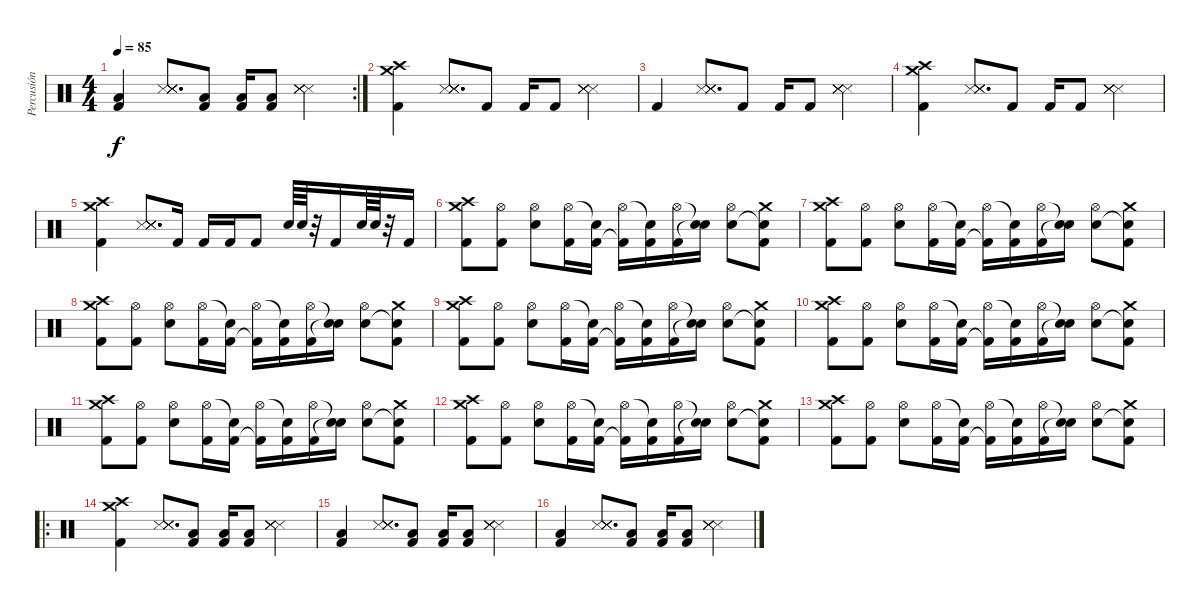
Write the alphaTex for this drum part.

\track ("Percusión" "Percusión") {instrument percussion}
\staff {score}
\articulation defaults
\rc 2
\ts (4 4)
\tempo 85
\clef neutral
\ks c
("Low Tom (hit)" "Kick (hit) 2").4{dy f} ("Snare (side stick) 3" "Snare (side stick) 3" "Snare (side stick) 3" "Snare (side stick) 3" "Snare (side stick) 3").8{d} ("Low Tom (hit)" "Kick (hit) 2").8 ("Low Tom (hit)" "Kick (hit) 2").16 ("Low Tom (hit)" "Kick (hit) 2").8 ("Snare (side stick) 3" "Snare (side stick) 3" "Snare (side stick) 3" "Snare (side stick) 3" "Snare (side stick) 3").4 |
("Crash medium (hit)" "Crash high (hit)" "Kick (hit) 2").4 ("Snare (side stick) 3" "Snare (side stick) 3" "Snare (side stick) 3" "Snare (side stick) 3" "Snare (side stick) 3").8{d} "Kick (hit) 2".8 "Kick (hit) 2".16 "Kick (hit) 2".8 ("Snare (side stick) 3" "Snare (side stick) 3" "Snare (side stick) 3" "Snare (side stick) 3" "Snare (side stick) 3").4 |
"Kick (hit) 2".4 ("Snare (side stick) 3" "Snare (side stick) 3" "Snare (side stick) 3" "Snare (side stick) 3" "Snare (side stick) 3").8{d} "Kick (hit) 2".8 "Kick (hit) 2".16 "Kick (hit) 2".8 ("Snare (side stick) 3" "Snare (side stick) 3" "Snare (side stick) 3" "Snare (side stick) 3" "Snare (side stick) 3").4 |
("Crash medium (hit)" "Crash high (hit)" "Kick (hit) 2").4 ("Snare (side stick) 3" "Snare (side stick) 3" "Snare (side stick) 3" "Snare (side stick) 3" "Snare (side stick) 3").8{d} "Kick (hit) 2".8 "Kick (hit) 2".16 "Kick (hit) 2".8 ("Snare (side stick) 3" "Snare (side stick) 3" "Snare (side stick) 3" "Snare (side stick) 3" "Snare (side stick) 3").4 |
("Crash medium (hit)" "Crash high (hit)" "Kick (hit) 2").4 ("Snare (side stick) 3" "Snare (side stick) 3" "Snare (side stick) 3" "Snare (side stick) 3" "Snare (side stick) 3").8{d} "Kick (hit) 2".16 "Kick (hit) 2".16 "Kick (hit) 2".16 "Kick (hit) 2".8 "Electric Snare (hit)".64 "Electric Snare (hit)".64 r.32 "Kick (hit) 2".16 "Electric Snare (hit)".64 "Electric Snare (hit)".64 r.32 "Kick (hit) 2".16 |
("Crash high (hit)" "Crash medium (hit)" "Kick (hit) 2").8 ("Hi-Hat (open)" "Kick (hit) 2").8 ("Hi-Hat (open)" "Electric Snare (hit)").8 ("Hi-Hat (open)" "Kick (hit) 2").16 ("Snare (hit)"{t} "Kick (hit) 2").16 ("Hi-Hat (open)" "Kick (hit) 2"{t}).16 ("Snare (hit)"{t} "Kick (hit) 2").16 ("Hi-Hat (open)" "Kick (hit) 2").16 ("Snare (hit)"{t} "Snare (hit)"{t}).16 ("Hi-Hat (open)" "Electric Snare (hit)").8 ("Crash medium (hit)" "Snare (hit)"{t} "Kick (hit) 2").8 |
("Crash high (hit)" "Crash medium (hit)" "Kick (hit) 2").8 ("Hi-Hat (open)" "Kick (hit) 2").8 ("Hi-Hat (open)" "Electric Snare (hit)").8 ("Hi-Hat (open)" "Kick (hit) 2").16 ("Snare (hit)"{t} "Kick (hit) 2").16 ("Hi-Hat (open)" "Kick (hit) 2"{t}).16 ("Snare (hit)"{t} "Kick (hit) 2").16 ("Hi-Hat (open)" "Kick (hit) 2").16 ("Snare (hit)"{t} "Snare (hit)"{t}).16 ("Hi-Hat (open)" "Electric Snare (hit)").8 ("Crash medium (hit)" "Snare (hit)"{t} "Kick (hit) 2").8 |
("Crash high (hit)" "Crash medium (hit)" "Kick (hit) 2").8 ("Hi-Hat (open)" "Kick (hit) 2").8 ("Hi-Hat (open)" "Electric Snare (hit)").8 ("Hi-Hat (open)" "Kick (hit) 2").16 ("Snare (hit)"{t} "Kick (hit) 2").16 ("Hi-Hat (open)" "Kick (hit) 2"{t}).16 ("Snare (hit)"{t} "Kick (hit) 2").16 ("Hi-Hat (open)" "Kick (hit) 2").16 ("Snare (hit)"{t} "Snare (hit)"{t}).16 ("Hi-Hat (open)" "Electric Snare (hit)").8 ("Crash medium (hit)" "Snare (hit)"{t} "Kick (hit) 2").8 |
("Crash high (hit)" "Crash medium (hit)" "Kick (hit) 2").8 ("Hi-Hat (open)" "Kick (hit) 2").8 ("Hi-Hat (open)" "Electric Snare (hit)").8 ("Hi-Hat (open)" "Kick (hit) 2").16 ("Snare (hit)"{t} "Kick (hit) 2").16 ("Hi-Hat (open)" "Kick (hit) 2"{t}).16 ("Snare (hit)"{t} "Kick (hit) 2").16 ("Hi-Hat (open)" "Kick (hit) 2").16 ("Snare (hit)"{t} "Snare (hit)"{t}).16 ("Hi-Hat (open)" "Electric Snare (hit)").8 ("Crash medium (hit)" "Snare (hit)"{t} "Kick (hit) 2").8 |
("Crash high (hit)" "Crash medium (hit)" "Kick (hit) 2").8 ("Hi-Hat (open)" "Kick (hit) 2").8 ("Hi-Hat (open)" "Electric Snare (hit)").8 ("Hi-Hat (open)" "Kick (hit) 2").16 ("Snare (hit)"{t} "Kick (hit) 2").16 ("Hi-Hat (open)" "Kick (hit) 2"{t}).16 ("Snare (hit)"{t} "Kick (hit) 2").16 ("Hi-Hat (open)" "Kick (hit) 2").16 ("Snare (hit)"{t} "Snare (hit)"{t}).16 ("Hi-Hat (open)" "Electric Snare (hit)").8 ("Crash medium (hit)" "Snare (hit)"{t} "Kick (hit) 2").8 |
("Crash high (hit)" "Crash medium (hit)" "Kick (hit) 2").8 ("Hi-Hat (open)" "Kick (hit) 2").8 ("Hi-Hat (open)" "Electric Snare (hit)").8 ("Hi-Hat (open)" "Kick (hit) 2").16 ("Snare (hit)"{t} "Kick (hit) 2").16 ("Hi-Hat (open)" "Kick (hit) 2"{t}).16 ("Snare (hit)"{t} "Kick (hit) 2").16 ("Hi-Hat (open)" "Kick (hit) 2").16 ("Snare (hit)"{t} "Snare (hit)"{t}).16 ("Hi-Hat (open)" "Electric Snare (hit)").8 ("Crash medium (hit)" "Snare (hit)"{t} "Kick (hit) 2").8 |
("Crash high (hit)" "Crash medium (hit)" "Kick (hit) 2").8 ("Hi-Hat (open)" "Kick (hit) 2").8 ("Hi-Hat (open)" "Electric Snare (hit)").8 ("Hi-Hat (open)" "Kick (hit) 2").16 ("Snare (hit)"{t} "Kick (hit) 2").16 ("Hi-Hat (open)" "Kick (hit) 2"{t}).16 ("Snare (hit)"{t} "Kick (hit) 2").16 ("Hi-Hat (open)" "Kick (hit) 2").16 ("Snare (hit)"{t} "Snare (hit)"{t}).16 ("Hi-Hat (open)" "Electric Snare (hit)").8 ("Crash medium (hit)" "Snare (hit)"{t} "Kick (hit) 2").8 |
("Crash high (hit)" "Crash medium (hit)" "Kick (hit) 2").8 ("Hi-Hat (open)" "Kick (hit) 2").8 ("Hi-Hat (open)" "Electric Snare (hit)").8 ("Hi-Hat (open)" "Kick (hit) 2").16 ("Snare (hit)"{t} "Kick (hit) 2").16 ("Hi-Hat (open)" "Kick (hit) 2"{t}).16 ("Snare (hit)"{t} "Kick (hit) 2").16 ("Hi-Hat (open)" "Kick (hit) 2").16 ("Snare (hit)"{t} "Snare (hit)"{t}).16 ("Hi-Hat (open)" "Electric Snare (hit)").8 ("Crash medium (hit)" "Snare (hit)"{t} "Kick (hit) 2").8 |
\ro
("Crash medium (hit)" "Crash high (hit)" "Kick (hit) 2").4 ("Snare (side stick) 3" "Snare (side stick) 3" "Snare (side stick) 3" "Snare (side stick) 3" "Snare (side stick) 3").8{d} ("Low Tom (hit)" "Kick (hit) 2").8 ("Low Tom (hit)" "Kick (hit) 2").16 ("Low Tom (hit)" "Kick (hit) 2").8 ("Snare (side stick) 3" "Snare (side stick) 3" "Snare (side stick) 3" "Snare (side stick) 3" "Snare (side stick) 3").4 |
("Low Tom (hit)" "Kick (hit) 2").4 ("Snare (side stick) 3" "Snare (side stick) 3" "Snare (side stick) 3" "Snare (side stick) 3" "Snare (side stick) 3").8{d} ("Low Tom (hit)" "Kick (hit) 2").8 ("Low Tom (hit)" "Kick (hit) 2").16 ("Low Tom (hit)" "Kick (hit) 2").8 ("Snare (side stick) 3" "Snare (side stick) 3" "Snare (side stick) 3" "Snare (side stick) 3" "Snare (side stick) 3").4 |
("Low Tom (hit)" "Kick (hit) 2").4 ("Snare (side stick) 3" "Snare (side stick) 3" "Snare (side stick) 3" "Snare (side stick) 3" "Snare (side stick) 3").8{d} ("Low Tom (hit)" "Kick (hit) 2").8 ("Low Tom (hit)" "Kick (hit) 2").16 ("Low Tom (hit)" "Kick (hit) 2").8 ("Snare (side stick) 3" "Snare (side stick) 3" "Snare (side stick) 3" "Snare (side stick) 3" "Snare (side stick) 3").4
